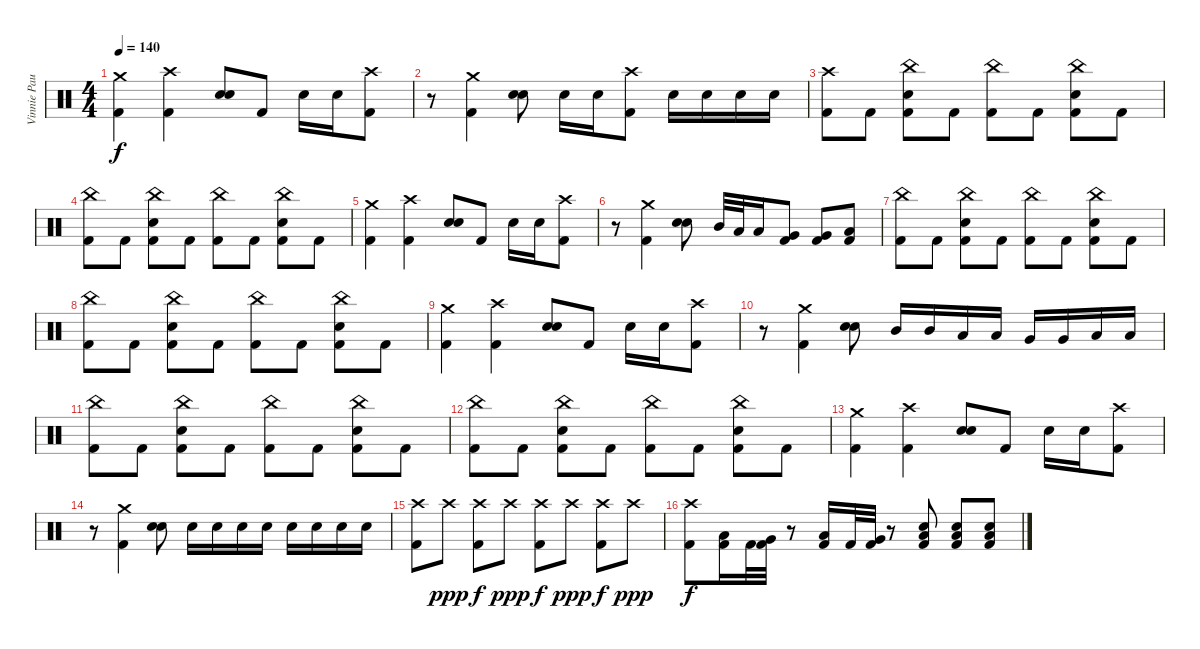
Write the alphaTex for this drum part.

\track ("Vinnie Paul" "Vinnie Pau") {instrument percussion}
\staff {score}
\articulation defaults
\ts (4 4)
\tempo 140
\clef neutral
\ks c
("Crash medium (hit)" "Kick (hit) 2").4{dy f} ("Crash high (hit)" "Kick (hit) 2").4 ("Snare (hit) 2" "Snare (hit) 2").8{bd 120} "Kick (hit) 2".8 "Snare (hit) 2".16 "Snare (hit) 2".16 ("Crash high (hit)" "Kick (hit) 2").8 |
r.8 ("Crash medium (hit)" "Kick (hit) 2").4 ("Snare (hit) 2" "Snare (hit) 2").8{bd 120} "Snare (hit) 2".16 "Snare (hit) 2".16 ("Crash high (hit)" "Kick (hit) 2").8 "Snare (hit) 2".16 "Snare (hit) 2".16 "Snare (hit) 2".16 "Snare (hit) 2".16 |
("Crash high (hit)" "Kick (hit) 2").8 "Kick (hit) 2".8 ("China (hit)" "Snare (hit) 2" "Kick (hit) 2").8 "Kick (hit) 2".8 ("China (hit)" "Kick (hit) 2").8 "Kick (hit) 2".8 ("China (hit)" "Snare (hit) 2" "Kick (hit) 2").8 "Kick (hit) 2".8 |
("China (hit)" "Kick (hit) 2").8 "Kick (hit) 2".8 ("China (hit)" "Snare (hit) 2" "Kick (hit) 2").8 "Kick (hit) 2".8 ("China (hit)" "Kick (hit) 2").8 "Kick (hit) 2".8 ("China (hit)" "Snare (hit) 2" "Kick (hit) 2").8 "Kick (hit) 2".8 |
("Crash medium (hit)" "Kick (hit) 2").4 ("Crash high (hit)" "Kick (hit) 2").4 ("Snare (hit) 2" "Snare (hit) 2").8{bd 120} "Kick (hit) 2".8 "Snare (hit) 2".16 "Snare (hit) 2".16 ("Crash high (hit)" "Kick (hit) 2").8 |
r.8 ("Crash medium (hit)" "Kick (hit) 2").4 ("Snare (hit) 2" "Snare (hit) 2").8{bd 120} "Mid Tom (hit)".32 "Low Tom (hit)".32 "Low Tom (hit)".16 ("Very Low Tom (hit)" "Kick (hit) 2").8 ("Very Low Tom (hit)" "Kick (hit) 2").8 ("Low Floor Tom (hit)" "Kick (hit) 2").8 |
("China (hit)" "Kick (hit) 2").8 "Kick (hit) 2".8 ("China (hit)" "Snare (hit) 2" "Kick (hit) 2").8 "Kick (hit) 2".8 ("China (hit)" "Kick (hit) 2").8 "Kick (hit) 2".8 ("China (hit)" "Snare (hit) 2" "Kick (hit) 2").8 "Kick (hit) 2".8 |
("China (hit)" "Kick (hit) 2").8 "Kick (hit) 2".8 ("China (hit)" "Snare (hit) 2" "Kick (hit) 2").8 "Kick (hit) 2".8 ("China (hit)" "Kick (hit) 2").8 "Kick (hit) 2".8 ("China (hit)" "Snare (hit) 2" "Kick (hit) 2").8 "Kick (hit) 2".8 |
("Crash medium (hit)" "Kick (hit) 2").4 ("Crash high (hit)" "Kick (hit) 2").4 ("Snare (hit) 2" "Snare (hit) 2").8{bd 120} "Kick (hit) 2".8 "Snare (hit) 2".16 "Snare (hit) 2".16 ("Crash high (hit)" "Kick (hit) 2").8 |
r.8 ("Crash medium (hit)" "Kick (hit) 2").4 ("Snare (hit) 2" "Snare (hit) 2").8{bd 120} "Mid Tom (hit)".16 "Mid Tom (hit)".16 "Low Tom (hit)".16 "Low Tom (hit)".16 "Very Low Tom (hit)".16 "Very Low Tom (hit)".16 "Low Floor Tom (hit)".16 "Low Floor Tom (hit)".16 |
("China (hit)" "Kick (hit) 2").8 "Kick (hit) 2".8 ("China (hit)" "Snare (hit) 2" "Kick (hit) 2").8 "Kick (hit) 2".8 ("China (hit)" "Kick (hit) 2").8 "Kick (hit) 2".8 ("China (hit)" "Snare (hit) 2" "Kick (hit) 2").8 "Kick (hit) 2".8 |
("China (hit)" "Kick (hit) 2").8 "Kick (hit) 2".8 ("China (hit)" "Snare (hit) 2" "Kick (hit) 2").8 "Kick (hit) 2".8 ("China (hit)" "Kick (hit) 2").8 "Kick (hit) 2".8 ("China (hit)" "Snare (hit) 2" "Kick (hit) 2").8 "Kick (hit) 2".8 |
("Crash medium (hit)" "Kick (hit) 2").4 ("Crash high (hit)" "Kick (hit) 2").4 ("Snare (hit) 2" "Snare (hit) 2").8{bd 120} "Kick (hit) 2".8 "Snare (hit) 2".16 "Snare (hit) 2".16 ("Crash high (hit)" "Kick (hit) 2").8 |
r.8 ("Crash medium (hit)" "Kick (hit) 2").4 ("Snare (hit) 2" "Snare (hit) 2").8{bd 120} "Snare (hit) 2".16 "Snare (hit) 2".16 "Snare (hit) 2".16 "Snare (hit) 2".16 "Snare (hit) 2".16 "Snare (hit) 2".16 "Snare (hit) 2".16 "Snare (hit) 2".16 |
("Crash high (hit)" "Kick (hit) 2").8 "Crash high (hit)".8{dy ppp} ("Crash high (hit)" "Kick (hit) 2").8{dy f} "Crash high (hit)".8{dy ppp} ("Crash high (hit)" "Kick (hit) 2").8{dy f} "Crash high (hit)".8{dy ppp} ("Crash high (hit)" "Kick (hit) 2").8{dy f} "Crash high (hit)".8{dy ppp} |
("Crash high (hit)" "Kick (hit) 2").8{dy f} ("Low Tom (hit)" "Kick (hit) 2").16 "Kick (hit) 2".32 ("Very Low Tom (hit)" "Kick (hit) 2").32 r.8 ("Low Tom (hit)" "Kick (hit) 2").16 "Kick (hit) 2".32 ("Very Low Tom (hit)" "Kick (hit) 2").32 r.8 ("Low Floor Tom (hit)" "Snare (hit) 2" "Kick (hit) 2").8 ("Low Floor Tom (hit)" "Snare (hit) 2" "Kick (hit) 2").8 ("Low Floor Tom (hit)" "Snare (hit) 2" "Kick (hit) 2").8
